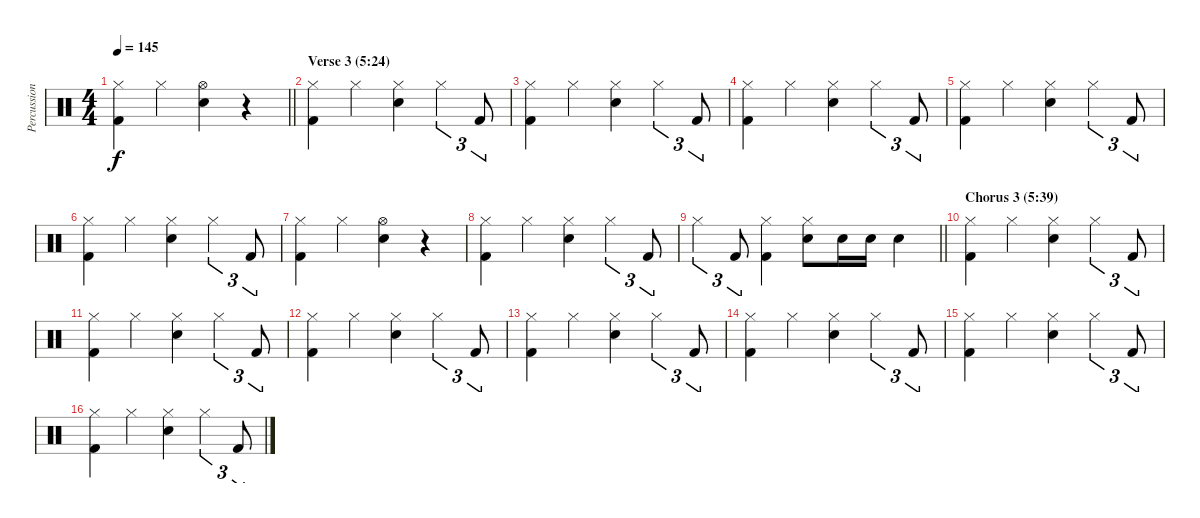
\track ("Percussion" "Percussion") {instrument percussion}
\staff {score}
\articulation defaults
\ts (4 4)
\tempo 145
\clef neutral
\barLineRight lightlight
\ks c
("Hi-Hat (closed)" "Kick (hit) 2").4{dy f} "Hi-Hat (closed)".4 ("Hi-Hat (open)" "Electric Snare (hit)").4 r.4 |
\section ("" "Verse 3 (5:24)")
("Hi-Hat (closed)" "Kick (hit) 2").4 "Hi-Hat (closed)".4 ("Hi-Hat (closed)" "Electric Snare (hit)").4 "Hi-Hat (closed)".4{tu (3 2)} "Kick (hit) 2".8{tu (3 2)} |
("Hi-Hat (closed)" "Kick (hit) 2").4 "Hi-Hat (closed)".4 ("Hi-Hat (closed)" "Electric Snare (hit)").4 "Hi-Hat (closed)".4{tu (3 2)} "Kick (hit) 2".8{tu (3 2)} |
("Hi-Hat (closed)" "Kick (hit) 2").4 "Hi-Hat (closed)".4 ("Hi-Hat (closed)" "Electric Snare (hit)").4 "Hi-Hat (closed)".4{tu (3 2)} "Kick (hit) 2".8{tu (3 2)} |
("Hi-Hat (closed)" "Kick (hit) 2").4 "Hi-Hat (closed)".4 ("Hi-Hat (closed)" "Electric Snare (hit)").4 "Hi-Hat (closed)".4{tu (3 2)} "Kick (hit) 2".8{tu (3 2)} |
("Hi-Hat (closed)" "Kick (hit) 2").4 "Hi-Hat (closed)".4 ("Hi-Hat (closed)" "Electric Snare (hit)").4 "Hi-Hat (closed)".4{tu (3 2)} "Kick (hit) 2".8{tu (3 2)} |
("Hi-Hat (closed)" "Kick (hit) 2").4 "Hi-Hat (closed)".4 ("Hi-Hat (open)" "Electric Snare (hit)").4 r.4 |
("Hi-Hat (closed)" "Kick (hit) 2").4 "Hi-Hat (closed)".4 ("Hi-Hat (closed)" "Electric Snare (hit)").4 "Hi-Hat (closed)".4{tu (3 2)} "Kick (hit) 2".8{tu (3 2)} |
\barLineRight lightlight "Hi-Hat (closed)".4{tu (3 2)} "Kick (hit) 2".8{tu (3 2)}
("Hi-Hat (closed)" "Kick (hit) 2").4 ("Hi-Hat (closed)" "Electric Snare (hit)").8 "Electric Snare (hit)".16 "Electric Snare (hit)".16 "Electric Snare (hit)".4 |
\section ("" "Chorus 3 (5:39)")
("Hi-Hat (closed)" "Kick (hit) 2").4 "Hi-Hat (closed)".4 ("Hi-Hat (closed)" "Electric Snare (hit)").4 "Hi-Hat (closed)".4{tu (3 2)} "Kick (hit) 2".8{tu (3 2)} |
("Hi-Hat (closed)" "Kick (hit) 2").4 "Hi-Hat (closed)".4 ("Hi-Hat (closed)" "Electric Snare (hit)").4 "Hi-Hat (closed)".4{tu (3 2)} "Kick (hit) 2".8{tu (3 2)} |
("Hi-Hat (closed)" "Kick (hit) 2").4 "Hi-Hat (closed)".4 ("Hi-Hat (closed)" "Electric Snare (hit)").4 "Hi-Hat (closed)".4{tu (3 2)} "Kick (hit) 2".8{tu (3 2)} |
("Hi-Hat (closed)" "Kick (hit) 2").4 "Hi-Hat (closed)".4 ("Hi-Hat (closed)" "Electric Snare (hit)").4 "Hi-Hat (closed)".4{tu (3 2)} "Kick (hit) 2".8{tu (3 2)} |
("Hi-Hat (closed)" "Kick (hit) 2").4 "Hi-Hat (closed)".4 ("Hi-Hat (closed)" "Electric Snare (hit)").4 "Hi-Hat (closed)".4{tu (3 2)} "Kick (hit) 2".8{tu (3 2)} |
("Hi-Hat (closed)" "Kick (hit) 2").4 "Hi-Hat (closed)".4 ("Hi-Hat (closed)" "Electric Snare (hit)").4 "Hi-Hat (closed)".4{tu (3 2)} "Kick (hit) 2".8{tu (3 2)} |
("Hi-Hat (closed)" "Kick (hit) 2").4 "Hi-Hat (closed)".4 ("Hi-Hat (closed)" "Electric Snare (hit)").4 "Hi-Hat (closed)".4{tu (3 2)} "Kick (hit) 2".8{tu (3 2)}
